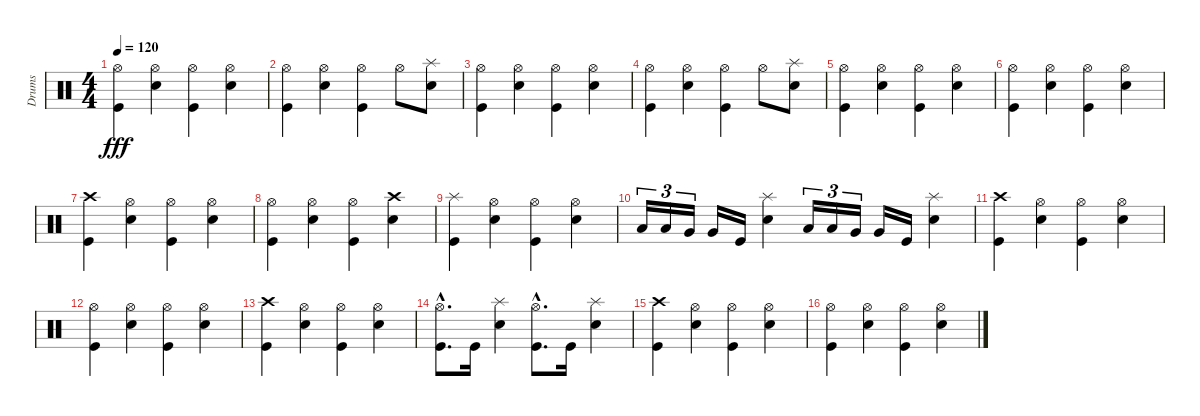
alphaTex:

\track ("Drums" "Drums") {instrument percussion}
\staff {score}
\articulation defaults
\ts (4 4)
\tempo 120
\clef neutral
\ks c
("Hi-Hat (open)" "Kick (hit)").4{dy fff} ("Hi-Hat (open)" "Snare (hit) 2").4 ("Hi-Hat (open)" "Kick (hit)").4 ("Hi-Hat (open)" "Snare (hit) 2").4 |
("Hi-Hat (open)" "Kick (hit)").4 ("Hi-Hat (open)" "Snare (hit) 2").4 ("Hi-Hat (open)" "Kick (hit)").4 "Hi-Hat (open)".8 ("Splash (hit)" "Snare (hit) 2").8 |
("Hi-Hat (open)" "Kick (hit)").4 ("Hi-Hat (open)" "Snare (hit) 2").4 ("Hi-Hat (open)" "Kick (hit)").4 ("Hi-Hat (open)" "Snare (hit) 2").4 |
("Hi-Hat (open)" "Kick (hit)").4 ("Hi-Hat (open)" "Snare (hit) 2").4 ("Hi-Hat (open)" "Kick (hit)").4 "Hi-Hat (open)".8 ("Splash (hit)" "Snare (hit) 2").8 |
("Hi-Hat (open)" "Kick (hit)").4 ("Hi-Hat (open)" "Snare (hit) 2").4 ("Hi-Hat (open)" "Kick (hit)").4 ("Hi-Hat (open)" "Snare (hit) 2").4 |
("Hi-Hat (open)" "Kick (hit)").4 ("Hi-Hat (open)" "Snare (hit) 2").4 ("Hi-Hat (open)" "Kick (hit)").4 ("Hi-Hat (open)" "Snare (hit) 2").4 |
("Crash high (hit)" "Kick (hit)").4 ("Hi-Hat (open)" "Snare (hit) 2").4 ("Hi-Hat (open)" "Kick (hit)").4 ("Hi-Hat (open)" "Snare (hit) 2").4 |
("Hi-Hat (open)" "Kick (hit)").4 ("Hi-Hat (open)" "Snare (hit) 2").4 ("Hi-Hat (open)" "Kick (hit)").4 ("Crash high (hit)" "Snare (hit) 2").4 |
("Splash (hit)" "Kick (hit)").4 ("Hi-Hat (open)" "Snare (hit) 2").4 ("Hi-Hat (open)" "Kick (hit)").4 ("Hi-Hat (open)" "Snare (hit) 2").4 |
"Low Tom (hit)".16{tu (3 2)} "Low Tom (hit)".16{tu (3 2)} "Very Low Tom (hit)".16{tu (3 2)} "Very Low Tom (hit)".16 "Kick (hit)".16 ("Splash (hit)" "Snare (hit) 2").4 "Low Tom (hit)".16{tu (3 2)} "Low Tom (hit)".16{tu (3 2)} "Very Low Tom (hit)".16{tu (3 2)} "Very Low Tom (hit)".16 "Kick (hit)".16 ("Splash (hit)" "Snare (hit) 2").4 |
("Crash high (hit)" "Kick (hit)").4 ("Hi-Hat (open)" "Snare (hit) 2").4 ("Hi-Hat (open)" "Kick (hit)").4 ("Hi-Hat (open)" "Snare (hit) 2").4 |
("Hi-Hat (open)" "Kick (hit)").4 ("Hi-Hat (open)" "Snare (hit) 2").4 ("Hi-Hat (open)" "Kick (hit)").4 ("Hi-Hat (open)" "Snare (hit) 2").4 |
("Crash high (hit)" "Kick (hit)").4 ("Hi-Hat (open)" "Snare (hit) 2").4 ("Hi-Hat (open)" "Kick (hit)").4 ("Hi-Hat (open)" "Snare (hit) 2").4 |
("Hi-Hat (open)"{hac} "Kick (hit)"{hac}).8{d} "Kick (hit)".16 ("Splash (hit)" "Snare (hit) 2").4 ("Hi-Hat (open)"{hac} "Kick (hit)"{hac}).8{d} "Kick (hit)".16 ("Splash (hit)" "Snare (hit) 2").4 |
("Crash high (hit)" "Kick (hit)").4 ("Hi-Hat (open)" "Snare (hit) 2").4 ("Hi-Hat (open)" "Kick (hit)").4 ("Hi-Hat (open)" "Snare (hit) 2").4 |
("Hi-Hat (open)" "Kick (hit)").4 ("Hi-Hat (open)" "Snare (hit) 2").4 ("Hi-Hat (open)" "Kick (hit)").4 ("Hi-Hat (open)" "Snare (hit) 2").4
